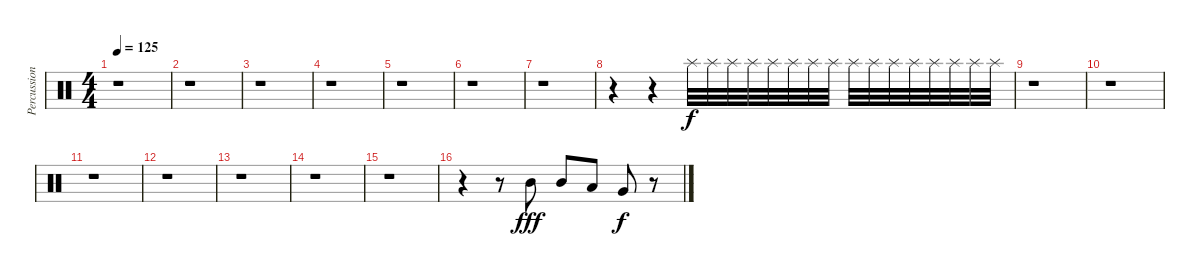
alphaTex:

\track ("Percussion" "Percussion") {instrument percussion}
\staff {score}
\articulation defaults
\ts (4 4)
\tempo 125
\clef neutral
\ks c
r.1{dy f} |
r.1 |
r.1 |
r.1 |
r.1 |
r.1 |
r.1 |
r.4 r.4 "Splash (hit)".32{volume 1} "Splash (hit)".32 "Splash (hit)".32{volume 2} "Splash (hit)".32 "Splash (hit)".32{volume 3} "Splash (hit)".32 "Splash (hit)".32{volume 5} "Splash (hit)".32 "Splash (hit)".32{volume 7} "Splash (hit)".32 "Splash (hit)".32{volume 9} "Splash (hit)".32 "Splash (hit)".32{volume 11} "Splash (hit)".32 "Splash (hit)".32{volume 13} "Splash (hit)".32 |
r.1 |
r.1 |
r.1 |
r.1 |
r.1 |
r.1 |
r.1 |
r.4 r.8 "Mid Tom (hit)".8{dy fff volume 14} "Mid Tom (hit)".8 "Low Tom (hit)".8 "Very Low Tom (hit)".8{dy f} r.8
